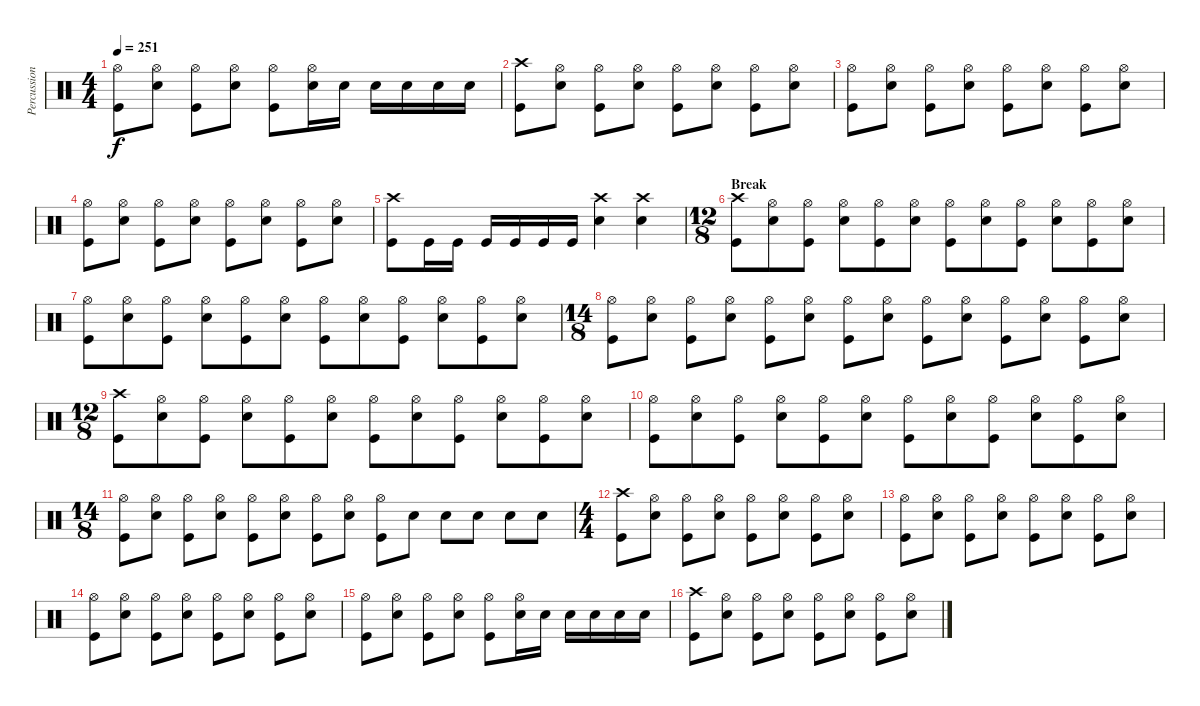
\track ("Percussion" "Percussion") {instrument percussion}
\staff {score}
\articulation defaults
\ts (4 4)
\tempo 251
\clef neutral
\ks c
("Hi-Hat (open)" "Kick (hit)").8{dy f} ("Hi-Hat (open)" "Electric Snare (hit)").8 ("Hi-Hat (open)" "Kick (hit)").8 ("Hi-Hat (open)" "Electric Snare (hit)").8 ("Hi-Hat (open)" "Kick (hit)").8 ("Hi-Hat (open)" "Electric Snare (hit)").16 "Electric Snare (hit)".16 "Electric Snare (hit)".16 "Electric Snare (hit)".16 "Electric Snare (hit)".16 "Electric Snare (hit)".16 |
("Crash high (hit)" "Kick (hit)").8 ("Hi-Hat (open)" "Electric Snare (hit)").8 ("Hi-Hat (open)" "Kick (hit)").8 ("Hi-Hat (open)" "Electric Snare (hit)").8 ("Hi-Hat (open)" "Kick (hit)").8 ("Hi-Hat (open)" "Electric Snare (hit)").8 ("Hi-Hat (open)" "Kick (hit)").8 ("Hi-Hat (open)" "Electric Snare (hit)").8 |
("Hi-Hat (open)" "Kick (hit)").8 ("Hi-Hat (open)" "Electric Snare (hit)").8 ("Hi-Hat (open)" "Kick (hit)").8 ("Hi-Hat (open)" "Electric Snare (hit)").8 ("Hi-Hat (open)" "Kick (hit)").8 ("Hi-Hat (open)" "Electric Snare (hit)").8 ("Hi-Hat (open)" "Kick (hit)").8 ("Hi-Hat (open)" "Electric Snare (hit)").8 |
("Hi-Hat (open)" "Kick (hit)").8 ("Hi-Hat (open)" "Electric Snare (hit)").8 ("Hi-Hat (open)" "Kick (hit)").8 ("Hi-Hat (open)" "Electric Snare (hit)").8 ("Hi-Hat (open)" "Kick (hit)").8 ("Hi-Hat (open)" "Electric Snare (hit)").8 ("Hi-Hat (open)" "Kick (hit)").8 ("Hi-Hat (open)" "Electric Snare (hit)").8 |
("Crash high (hit)" "Kick (hit)").8 "Kick (hit)".16 "Kick (hit)".16 "Kick (hit)".16 "Kick (hit)".16 "Kick (hit)".16 "Kick (hit)".16 ("Crash high (hit)" "Electric Snare (hit)").4 ("Crash high (hit)" "Electric Snare (hit)").4 |
\ts (12 8)
\section ("" "Break")
("Crash high (hit)" "Kick (hit)").8 ("Hi-Hat (open)" "Electric Snare (hit)").8 ("Hi-Hat (open)" "Kick (hit)").8 ("Hi-Hat (open)" "Electric Snare (hit)").8 ("Hi-Hat (open)" "Kick (hit)").8 ("Hi-Hat (open)" "Electric Snare (hit)").8 ("Hi-Hat (open)" "Kick (hit)").8 ("Hi-Hat (open)" "Electric Snare (hit)").8 ("Hi-Hat (open)" "Kick (hit)").8 ("Hi-Hat (open)" "Electric Snare (hit)").8 ("Hi-Hat (open)" "Kick (hit)").8 ("Hi-Hat (open)" "Electric Snare (hit)").8 |
("Hi-Hat (open)" "Kick (hit)").8 ("Hi-Hat (open)" "Electric Snare (hit)").8 ("Hi-Hat (open)" "Kick (hit)").8 ("Hi-Hat (open)" "Electric Snare (hit)").8 ("Hi-Hat (open)" "Kick (hit)").8 ("Hi-Hat (open)" "Electric Snare (hit)").8 ("Hi-Hat (open)" "Kick (hit)").8 ("Hi-Hat (open)" "Electric Snare (hit)").8 ("Hi-Hat (open)" "Kick (hit)").8 ("Hi-Hat (open)" "Electric Snare (hit)").8 ("Hi-Hat (open)" "Kick (hit)").8 ("Hi-Hat (open)" "Electric Snare (hit)").8 |
\ts (14 8)
("Hi-Hat (open)" "Kick (hit)").8 ("Hi-Hat (open)" "Electric Snare (hit)").8 ("Hi-Hat (open)" "Kick (hit)").8 ("Hi-Hat (open)" "Electric Snare (hit)").8 ("Hi-Hat (open)" "Kick (hit)").8 ("Hi-Hat (open)" "Electric Snare (hit)").8 ("Hi-Hat (open)" "Kick (hit)").8 ("Hi-Hat (open)" "Electric Snare (hit)").8 ("Hi-Hat (open)" "Kick (hit)").8 ("Hi-Hat (open)" "Electric Snare (hit)").8 ("Hi-Hat (open)" "Kick (hit)").8 ("Hi-Hat (open)" "Electric Snare (hit)").8 ("Hi-Hat (open)" "Kick (hit)").8 ("Hi-Hat (open)" "Electric Snare (hit)").8 |
\ts (12 8)
("Crash high (hit)" "Kick (hit)").8 ("Hi-Hat (open)" "Electric Snare (hit)").8 ("Hi-Hat (open)" "Kick (hit)").8 ("Hi-Hat (open)" "Electric Snare (hit)").8 ("Hi-Hat (open)" "Kick (hit)").8 ("Hi-Hat (open)" "Electric Snare (hit)").8 ("Hi-Hat (open)" "Kick (hit)").8 ("Hi-Hat (open)" "Electric Snare (hit)").8 ("Hi-Hat (open)" "Kick (hit)").8 ("Hi-Hat (open)" "Electric Snare (hit)").8 ("Hi-Hat (open)" "Kick (hit)").8 ("Hi-Hat (open)" "Electric Snare (hit)").8 |
("Hi-Hat (open)" "Kick (hit)").8 ("Hi-Hat (open)" "Electric Snare (hit)").8 ("Hi-Hat (open)" "Kick (hit)").8 ("Hi-Hat (open)" "Electric Snare (hit)").8 ("Hi-Hat (open)" "Kick (hit)").8 ("Hi-Hat (open)" "Electric Snare (hit)").8 ("Hi-Hat (open)" "Kick (hit)").8 ("Hi-Hat (open)" "Electric Snare (hit)").8 ("Hi-Hat (open)" "Kick (hit)").8 ("Hi-Hat (open)" "Electric Snare (hit)").8 ("Hi-Hat (open)" "Kick (hit)").8 ("Hi-Hat (open)" "Electric Snare (hit)").8 |
\ts (14 8)
("Hi-Hat (open)" "Kick (hit)").8 ("Hi-Hat (open)" "Electric Snare (hit)").8 ("Hi-Hat (open)" "Kick (hit)").8 ("Hi-Hat (open)" "Electric Snare (hit)").8 ("Hi-Hat (open)" "Kick (hit)").8 ("Hi-Hat (open)" "Electric Snare (hit)").8 ("Hi-Hat (open)" "Kick (hit)").8 ("Hi-Hat (open)" "Electric Snare (hit)").8 ("Hi-Hat (open)" "Kick (hit)").8 "Electric Snare (hit)".8 "Electric Snare (hit)".8 "Electric Snare (hit)".8 "Electric Snare (hit)".8 "Electric Snare (hit)".8 |
\ts (4 4)
("Crash high (hit)" "Kick (hit)").8 ("Hi-Hat (open)" "Electric Snare (hit)").8 ("Hi-Hat (open)" "Kick (hit)").8 ("Hi-Hat (open)" "Electric Snare (hit)").8 ("Hi-Hat (open)" "Kick (hit)").8 ("Hi-Hat (open)" "Electric Snare (hit)").8 ("Hi-Hat (open)" "Kick (hit)").8 ("Hi-Hat (open)" "Electric Snare (hit)").8 |
("Hi-Hat (open)" "Kick (hit)").8 ("Hi-Hat (open)" "Electric Snare (hit)").8 ("Hi-Hat (open)" "Kick (hit)").8 ("Hi-Hat (open)" "Electric Snare (hit)").8 ("Hi-Hat (open)" "Kick (hit)").8 ("Hi-Hat (open)" "Electric Snare (hit)").8 ("Hi-Hat (open)" "Kick (hit)").8 ("Hi-Hat (open)" "Electric Snare (hit)").8 |
("Hi-Hat (open)" "Kick (hit)").8 ("Hi-Hat (open)" "Electric Snare (hit)").8 ("Hi-Hat (open)" "Kick (hit)").8 ("Hi-Hat (open)" "Electric Snare (hit)").8 ("Hi-Hat (open)" "Kick (hit)").8 ("Hi-Hat (open)" "Electric Snare (hit)").8 ("Hi-Hat (open)" "Kick (hit)").8 ("Hi-Hat (open)" "Electric Snare (hit)").8 |
("Hi-Hat (open)" "Kick (hit)").8 ("Hi-Hat (open)" "Electric Snare (hit)").8 ("Hi-Hat (open)" "Kick (hit)").8 ("Hi-Hat (open)" "Electric Snare (hit)").8 ("Hi-Hat (open)" "Kick (hit)").8 ("Hi-Hat (open)" "Electric Snare (hit)").16 "Electric Snare (hit)".16 "Electric Snare (hit)".16 "Electric Snare (hit)".16 "Electric Snare (hit)".16 "Electric Snare (hit)".16 |
("Crash high (hit)" "Kick (hit)").8 ("Hi-Hat (open)" "Electric Snare (hit)").8 ("Hi-Hat (open)" "Kick (hit)").8 ("Hi-Hat (open)" "Electric Snare (hit)").8 ("Hi-Hat (open)" "Kick (hit)").8 ("Hi-Hat (open)" "Electric Snare (hit)").8 ("Hi-Hat (open)" "Kick (hit)").8 ("Hi-Hat (open)" "Electric Snare (hit)").8
